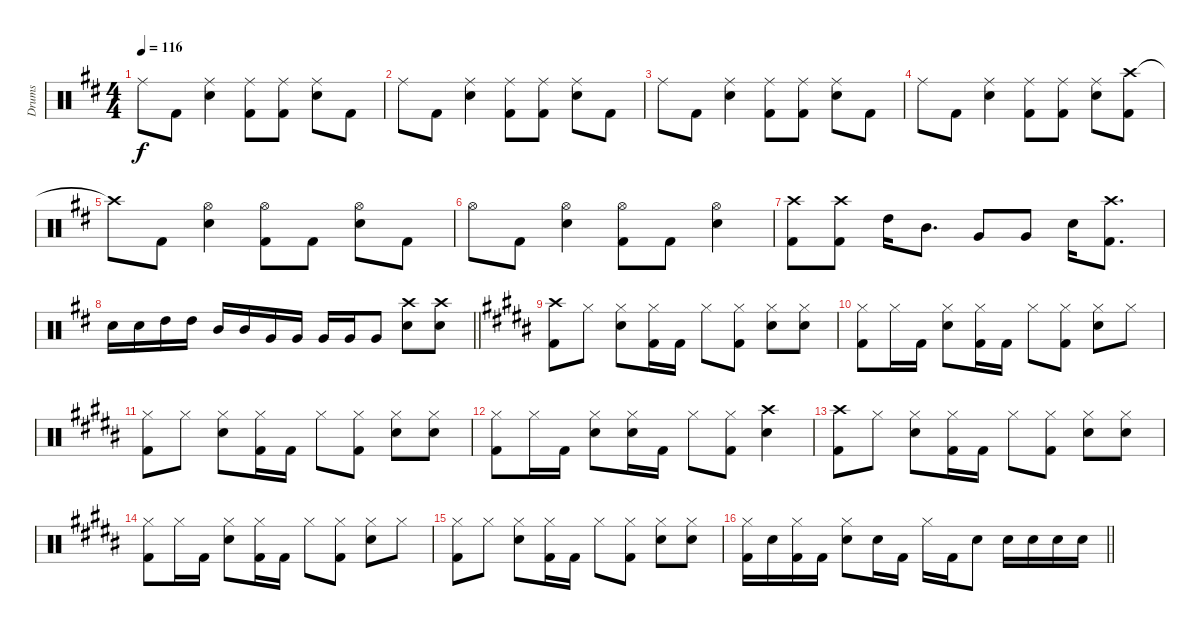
\track ("Drums" "Drums") {instrument percussion}
\staff {score}
\articulation defaults
\ts (4 4)
\tempo 116
\clef neutral
\ks d "Ride (middle)".8{dy f} "Kick (hit) 2".8
("Snare (hit) 2" "Ride (middle)").4 ("Ride (middle)" "Kick (hit) 2").8 ("Ride (middle)" "Kick (hit) 2").8 ("Ride (middle)" "Snare (hit) 2").8 "Kick (hit) 2".8 |
"Ride (middle)".8 "Kick (hit) 2".8 ("Snare (hit) 2" "Ride (middle)").4 ("Ride (middle)" "Kick (hit) 2").8 ("Ride (middle)" "Kick (hit) 2").8 ("Ride (middle)" "Snare (hit) 2").8 "Kick (hit) 2".8 |
"Ride (middle)".8 "Kick (hit) 2".8 ("Snare (hit) 2" "Ride (middle)").4 ("Ride (middle)" "Kick (hit) 2").8 ("Ride (middle)" "Kick (hit) 2").8 ("Ride (middle)" "Snare (hit) 2").8 "Kick (hit) 2".8 |
"Ride (middle)".8 "Kick (hit) 2".8 ("Snare (hit) 2" "Ride (middle)").4 ("Ride (middle)" "Kick (hit) 2").8 ("Ride (middle)" "Kick (hit) 2").8 ("Ride (middle)" "Snare (hit) 2").8 ("Crash high (hit)" "Kick (hit) 2").8 |
"Crash high (hit)"{t}.8 "Kick (hit) 2".8 ("Hi-Hat (open)" "Snare (hit) 2").4 ("Hi-Hat (open)" "Kick (hit) 2").8 "Kick (hit) 2".8 ("Hi-Hat (open)" "Snare (hit) 2").8 "Kick (hit) 2".8 |
"Hi-Hat (open)".8 "Kick (hit) 2".8 ("Hi-Hat (open)" "Snare (hit) 2").4 ("Hi-Hat (open)" "Kick (hit) 2").8 "Kick (hit) 2".8 ("Hi-Hat (open)" "Snare (hit) 2").4 |
("Kick (hit) 2" "Crash high (hit)").8 ("Kick (hit) 2" "Crash high (hit)").8 "High Tom (hit)".16 "Mid Tom (hit)".8{d} "Very Low Tom (hit)".8 "Very Low Tom (hit)".8 "Snare (hit) 2".16 ("Crash high (hit)" "Kick (hit) 2").8{d} |
\barLineRight lightlight "Snare (hit) 2".16 "Snare (hit) 2".16 "High Tom (hit)".16 "High Tom (hit)".16 "Mid Tom (hit)".16 "Mid Tom (hit)".16 "Very Low Tom (hit)".16 "Very Low Tom (hit)".16 "Very Low Tom (hit)".16 "Very Low Tom (hit)".16 "Very Low Tom (hit)".8
("Crash high (hit)" "Snare (hit) 2").8 ("Crash high (hit)" "Snare (hit) 2").8 |
\ks b
("Crash high (hit)" "Kick (hit) 2").8 "Hi-Hat (closed)".8 ("Snare (hit) 2" "Hi-Hat (closed)").8 ("Hi-Hat (closed)" "Kick (hit) 2").16 "Kick (hit) 2".16 "Hi-Hat (closed)".8 ("Kick (hit) 2" "Hi-Hat (closed)").8 ("Hi-Hat (closed)" "Snare (hit) 2").8 ("Snare (hit) 2" "Hi-Hat (closed)").8 |
\ks g#minor
("Hi-Hat (closed)" "Kick (hit) 2").8 "Hi-Hat (closed)".16 "Kick (hit) 2".16 ("Hi-Hat (closed)" "Snare (hit) 2").8 ("Hi-Hat (closed)" "Kick (hit) 2").16 "Kick (hit) 2".16 "Hi-Hat (closed)".8 ("Hi-Hat (closed)" "Kick (hit) 2").8 ("Hi-Hat (closed)" "Snare (hit) 2").8 "Hi-Hat (closed)".8 |
\ks b
("Hi-Hat (closed)" "Kick (hit) 2").8 "Hi-Hat (closed)".8 ("Snare (hit) 2" "Hi-Hat (closed)").8 ("Hi-Hat (closed)" "Kick (hit) 2").16 "Kick (hit) 2".16 "Hi-Hat (closed)".8 ("Kick (hit) 2" "Hi-Hat (closed)").8 ("Hi-Hat (closed)" "Snare (hit) 2").8 ("Snare (hit) 2" "Hi-Hat (closed)").8 |
\ks g#minor
("Hi-Hat (closed)" "Kick (hit) 2").8 "Hi-Hat (closed)".16 "Kick (hit) 2".16 ("Hi-Hat (closed)" "Snare (hit) 2").8 ("Hi-Hat (closed)" "Snare (hit) 2").16 "Kick (hit) 2".16 "Hi-Hat (closed)".8 ("Hi-Hat (closed)" "Kick (hit) 2").8 ("Crash high (hit)" "Snare (hit) 2").4 |
\ks b
("Crash high (hit)" "Kick (hit) 2").8 "Hi-Hat (closed)".8 ("Snare (hit) 2" "Hi-Hat (closed)").8 ("Hi-Hat (closed)" "Kick (hit) 2").16 "Kick (hit) 2".16 "Hi-Hat (closed)".8 ("Kick (hit) 2" "Hi-Hat (closed)").8 ("Hi-Hat (closed)" "Snare (hit) 2").8 ("Snare (hit) 2" "Hi-Hat (closed)").8 |
\ks g#minor
("Hi-Hat (closed)" "Kick (hit) 2").8 "Hi-Hat (closed)".16 "Kick (hit) 2".16 ("Hi-Hat (closed)" "Snare (hit) 2").8 ("Hi-Hat (closed)" "Kick (hit) 2").16 "Kick (hit) 2".16 "Hi-Hat (closed)".8 ("Hi-Hat (closed)" "Kick (hit) 2").8 ("Hi-Hat (closed)" "Snare (hit) 2").8 "Hi-Hat (closed)".8 |
\ks b
("Hi-Hat (closed)" "Kick (hit) 2").8 "Hi-Hat (closed)".8 ("Snare (hit) 2" "Hi-Hat (closed)").8 ("Hi-Hat (closed)" "Kick (hit) 2").16 "Kick (hit) 2".16 "Hi-Hat (closed)".8 ("Kick (hit) 2" "Hi-Hat (closed)").8 ("Hi-Hat (closed)" "Snare (hit) 2").8 ("Snare (hit) 2" "Hi-Hat (closed)").8 |
\barLineRight lightlight
\ks g#minor
("Hi-Hat (closed)" "Kick (hit) 2").16 "Snare (hit) 2".16 ("Hi-Hat (closed)" "Kick (hit) 2").16 "Kick (hit) 2".16 ("Hi-Hat (closed)" "Snare (hit) 2").8 "Snare (hit) 2".16 "Kick (hit) 2".16 "Hi-Hat (closed)".16 "Kick (hit) 2".16 "Snare (hit) 2".8 "Snare (hit) 2".16 "Snare (hit) 2".16 "Snare (hit) 2".16 "Snare (hit) 2".16
